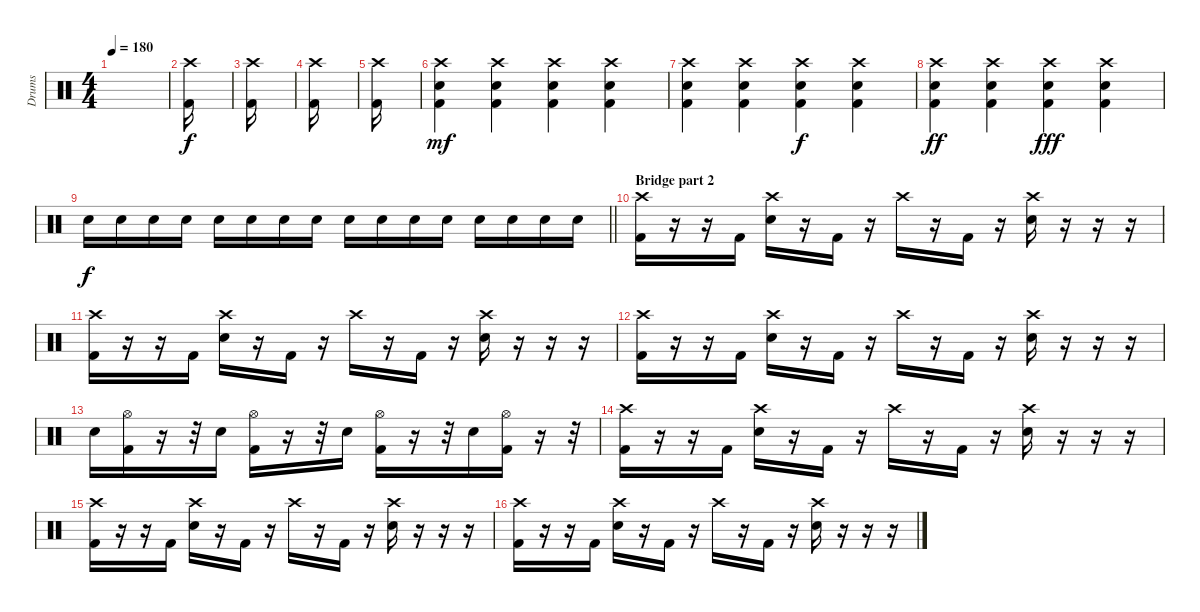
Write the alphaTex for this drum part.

\track ("Drums" "Drums") {instrument percussion}
\staff {score}
\articulation defaults
\ts (4 4)
\tempo 180
\clef neutral
\ks c
|
("Crash high (hit)" "Kick (hit) 2").16 |
("Crash high (hit)" "Kick (hit) 2").16 |
("Crash high (hit)" "Kick (hit) 2").16 |
("Crash high (hit)" "Kick (hit) 2").16 |
("Electric Snare (hit)" "Crash high (hit)" "Kick (hit) 2").4{dy mf} ("Electric Snare (hit)" "Crash high (hit)" "Kick (hit) 2").4 ("Electric Snare (hit)" "Crash high (hit)" "Kick (hit) 2").4 ("Electric Snare (hit)" "Crash high (hit)" "Kick (hit) 2").4 |
("Electric Snare (hit)" "Crash high (hit)" "Kick (hit) 2").4 ("Electric Snare (hit)" "Crash high (hit)" "Kick (hit) 2").4 ("Electric Snare (hit)" "Crash high (hit)" "Kick (hit) 2").4{dy f} ("Electric Snare (hit)" "Crash high (hit)" "Kick (hit) 2").4 |
("Electric Snare (hit)" "Crash high (hit)" "Kick (hit) 2").4{dy ff} ("Electric Snare (hit)" "Crash high (hit)" "Kick (hit) 2").4 ("Electric Snare (hit)" "Crash high (hit)" "Kick (hit) 2").4{dy fff} ("Electric Snare (hit)" "Crash high (hit)" "Kick (hit) 2").4 |
\barLineRight lightlight "Electric Snare (hit)".16{dy f} "Electric Snare (hit)".16 "Electric Snare (hit)".16 "Electric Snare (hit)".16 "Electric Snare (hit)".16 "Electric Snare (hit)".16 "Electric Snare (hit)".16 "Electric Snare (hit)".16 "Electric Snare (hit)".16 "Electric Snare (hit)".16 "Electric Snare (hit)".16 "Electric Snare (hit)".16 "Electric Snare (hit)".16 "Electric Snare (hit)".16 "Electric Snare (hit)".16 "Electric Snare (hit)".16
|
\section ("" "Bridge part 2")
("Crash high (hit)" "Kick (hit) 2").16 r.16 r.16 "Kick (hit) 2".16 ("Crash high (hit)" "Electric Snare (hit)").16 r.16 "Kick (hit) 2".16 r.16 "Crash high (hit)".16 r.16 "Kick (hit) 2".16 r.16 ("Crash high (hit)" "Electric Snare (hit)").16 r.16 r.16 r.16 |
("Crash high (hit)" "Kick (hit) 2").16 r.16 r.16 "Kick (hit) 2".16 ("Crash high (hit)" "Electric Snare (hit)").16 r.16 "Kick (hit) 2".16 r.16 "Crash high (hit)".16 r.16 "Kick (hit) 2".16 r.16 ("Crash high (hit)" "Electric Snare (hit)").16 r.16 r.16 r.16 |
("Crash high (hit)" "Kick (hit) 2").16 r.16 r.16 "Kick (hit) 2".16 ("Crash high (hit)" "Electric Snare (hit)").16 r.16 "Kick (hit) 2".16 r.16 "Crash high (hit)".16 r.16 "Kick (hit) 2".16 r.16 ("Crash high (hit)" "Electric Snare (hit)").16 r.16 r.16 r.16 |
"Electric Snare (hit)".16 ("Hi-Hat (open)" "Kick (hit) 2").16 r.16 r.32 "Electric Snare (hit)".16 ("Hi-Hat (open)" "Kick (hit) 2").16 r.16 r.32 "Electric Snare (hit)".16 ("Hi-Hat (open)" "Kick (hit) 2").16 r.16 r.32 "Electric Snare (hit)".16 ("Hi-Hat (open)" "Kick (hit) 2").16 r.16 r.32 |
("Crash high (hit)" "Kick (hit) 2").16 r.16 r.16 "Kick (hit) 2".16 ("Crash high (hit)" "Electric Snare (hit)").16 r.16 "Kick (hit) 2".16 r.16 "Crash high (hit)".16 r.16 "Kick (hit) 2".16 r.16 ("Crash high (hit)" "Electric Snare (hit)").16 r.16 r.16 r.16 |
("Crash high (hit)" "Kick (hit) 2").16 r.16 r.16 "Kick (hit) 2".16 ("Crash high (hit)" "Electric Snare (hit)").16 r.16 "Kick (hit) 2".16 r.16 "Crash high (hit)".16 r.16 "Kick (hit) 2".16 r.16 ("Crash high (hit)" "Electric Snare (hit)").16 r.16 r.16 r.16 |
("Crash high (hit)" "Kick (hit) 2").16 r.16 r.16 "Kick (hit) 2".16 ("Crash high (hit)" "Electric Snare (hit)").16 r.16 "Kick (hit) 2".16 r.16 "Crash high (hit)".16 r.16 "Kick (hit) 2".16 r.16 ("Crash high (hit)" "Electric Snare (hit)").16 r.16 r.16 r.16
